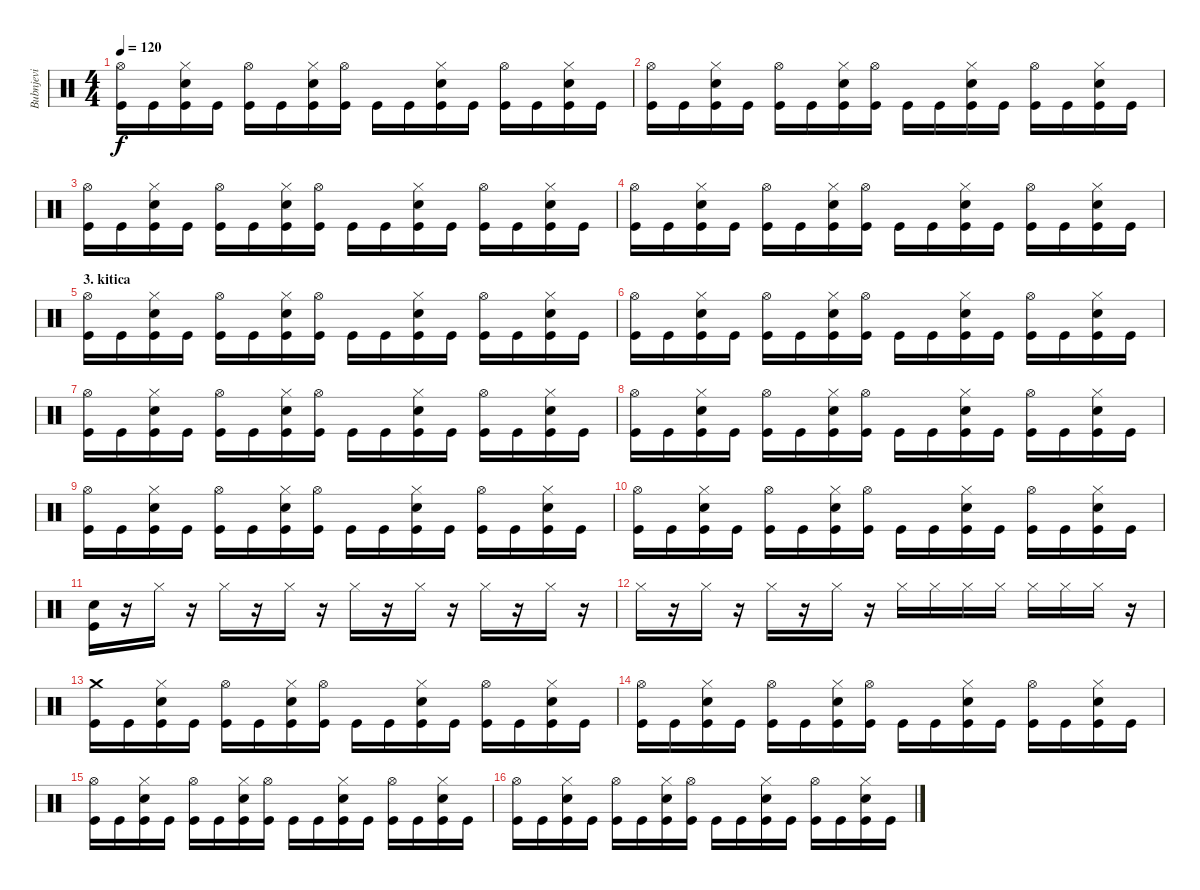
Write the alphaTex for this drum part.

\track ("Bubnjevi" "Bubnjevi") {instrument percussion}
\staff {score}
\articulation defaults
\ts (4 4)
\tempo 120
\clef neutral
\ks c
("Hi-Hat (open)" "Kick (hit)").16{dy f} "Kick (hit)".16 ("Electric Snare (hit)" "Hi-Hat (closed)" "Kick (hit)").16 "Kick (hit)".16 ("Hi-Hat (open)" "Kick (hit)").16 "Kick (hit)".16 ("Electric Snare (hit)" "Hi-Hat (closed)" "Kick (hit)").16 ("Hi-Hat (open)" "Kick (hit)").16 "Kick (hit)".16 "Kick (hit)".16 ("Electric Snare (hit)" "Hi-Hat (closed)" "Kick (hit)").16 "Kick (hit)".16 ("Hi-Hat (open)" "Kick (hit)").16 "Kick (hit)".16 ("Electric Snare (hit)" "Hi-Hat (closed)" "Kick (hit)").16 "Kick (hit)".16 |
("Hi-Hat (open)" "Kick (hit)").16 "Kick (hit)".16 ("Electric Snare (hit)" "Hi-Hat (closed)" "Kick (hit)").16 "Kick (hit)".16 ("Hi-Hat (open)" "Kick (hit)").16 "Kick (hit)".16 ("Electric Snare (hit)" "Hi-Hat (closed)" "Kick (hit)").16 ("Hi-Hat (open)" "Kick (hit)").16 "Kick (hit)".16 "Kick (hit)".16 ("Electric Snare (hit)" "Hi-Hat (closed)" "Kick (hit)").16 "Kick (hit)".16 ("Hi-Hat (open)" "Kick (hit)").16 "Kick (hit)".16 ("Electric Snare (hit)" "Hi-Hat (closed)" "Kick (hit)").16 "Kick (hit)".16 |
("Hi-Hat (open)" "Kick (hit)").16 "Kick (hit)".16 ("Electric Snare (hit)" "Hi-Hat (closed)" "Kick (hit)").16 "Kick (hit)".16 ("Hi-Hat (open)" "Kick (hit)").16 "Kick (hit)".16 ("Electric Snare (hit)" "Hi-Hat (closed)" "Kick (hit)").16 ("Hi-Hat (open)" "Kick (hit)").16 "Kick (hit)".16 "Kick (hit)".16 ("Electric Snare (hit)" "Hi-Hat (closed)" "Kick (hit)").16 "Kick (hit)".16 ("Hi-Hat (open)" "Kick (hit)").16 "Kick (hit)".16 ("Electric Snare (hit)" "Hi-Hat (closed)" "Kick (hit)").16 "Kick (hit)".16 |
("Hi-Hat (open)" "Kick (hit)").16 "Kick (hit)".16 ("Electric Snare (hit)" "Hi-Hat (closed)" "Kick (hit)").16 "Kick (hit)".16 ("Hi-Hat (open)" "Kick (hit)").16 "Kick (hit)".16 ("Electric Snare (hit)" "Hi-Hat (closed)" "Kick (hit)").16 ("Hi-Hat (open)" "Kick (hit)").16 "Kick (hit)".16 "Kick (hit)".16 ("Electric Snare (hit)" "Hi-Hat (closed)" "Kick (hit)").16 "Kick (hit)".16 ("Hi-Hat (open)" "Kick (hit)").16 "Kick (hit)".16 ("Electric Snare (hit)" "Hi-Hat (closed)" "Kick (hit)").16 "Kick (hit)".16 |
\section ("" "3. kitica")
("Hi-Hat (open)" "Kick (hit)").16 "Kick (hit)".16 ("Electric Snare (hit)" "Hi-Hat (closed)" "Kick (hit)").16 "Kick (hit)".16 ("Hi-Hat (open)" "Kick (hit)").16 "Kick (hit)".16 ("Electric Snare (hit)" "Hi-Hat (closed)" "Kick (hit)").16 ("Hi-Hat (open)" "Kick (hit)").16 "Kick (hit)".16 "Kick (hit)".16 ("Electric Snare (hit)" "Hi-Hat (closed)" "Kick (hit)").16 "Kick (hit)".16 ("Hi-Hat (open)" "Kick (hit)").16 "Kick (hit)".16 ("Electric Snare (hit)" "Hi-Hat (closed)" "Kick (hit)").16 "Kick (hit)".16 |
("Hi-Hat (open)" "Kick (hit)").16 "Kick (hit)".16 ("Electric Snare (hit)" "Hi-Hat (closed)" "Kick (hit)").16 "Kick (hit)".16 ("Hi-Hat (open)" "Kick (hit)").16 "Kick (hit)".16 ("Electric Snare (hit)" "Hi-Hat (closed)" "Kick (hit)").16 ("Hi-Hat (open)" "Kick (hit)").16 "Kick (hit)".16 "Kick (hit)".16 ("Electric Snare (hit)" "Hi-Hat (closed)" "Kick (hit)").16 "Kick (hit)".16 ("Hi-Hat (open)" "Kick (hit)").16 "Kick (hit)".16 ("Electric Snare (hit)" "Hi-Hat (closed)" "Kick (hit)").16 "Kick (hit)".16 |
("Hi-Hat (open)" "Kick (hit)").16 "Kick (hit)".16 ("Electric Snare (hit)" "Hi-Hat (closed)" "Kick (hit)").16 "Kick (hit)".16 ("Hi-Hat (open)" "Kick (hit)").16 "Kick (hit)".16 ("Electric Snare (hit)" "Hi-Hat (closed)" "Kick (hit)").16 ("Hi-Hat (open)" "Kick (hit)").16 "Kick (hit)".16 "Kick (hit)".16 ("Electric Snare (hit)" "Hi-Hat (closed)" "Kick (hit)").16 "Kick (hit)".16 ("Hi-Hat (open)" "Kick (hit)").16 "Kick (hit)".16 ("Electric Snare (hit)" "Hi-Hat (closed)" "Kick (hit)").16 "Kick (hit)".16 |
("Hi-Hat (open)" "Kick (hit)").16 "Kick (hit)".16 ("Electric Snare (hit)" "Hi-Hat (closed)" "Kick (hit)").16 "Kick (hit)".16 ("Hi-Hat (open)" "Kick (hit)").16 "Kick (hit)".16 ("Electric Snare (hit)" "Hi-Hat (closed)" "Kick (hit)").16 ("Hi-Hat (open)" "Kick (hit)").16 "Kick (hit)".16 "Kick (hit)".16 ("Electric Snare (hit)" "Hi-Hat (closed)" "Kick (hit)").16 "Kick (hit)".16 ("Hi-Hat (open)" "Kick (hit)").16 "Kick (hit)".16 ("Electric Snare (hit)" "Hi-Hat (closed)" "Kick (hit)").16 "Kick (hit)".16 |
("Hi-Hat (open)" "Kick (hit)").16 "Kick (hit)".16 ("Electric Snare (hit)" "Hi-Hat (closed)" "Kick (hit)").16 "Kick (hit)".16 ("Hi-Hat (open)" "Kick (hit)").16 "Kick (hit)".16 ("Electric Snare (hit)" "Hi-Hat (closed)" "Kick (hit)").16 ("Hi-Hat (open)" "Kick (hit)").16 "Kick (hit)".16 "Kick (hit)".16 ("Electric Snare (hit)" "Hi-Hat (closed)" "Kick (hit)").16 "Kick (hit)".16 ("Hi-Hat (open)" "Kick (hit)").16 "Kick (hit)".16 ("Electric Snare (hit)" "Hi-Hat (closed)" "Kick (hit)").16 "Kick (hit)".16 |
("Hi-Hat (open)" "Kick (hit)").16 "Kick (hit)".16 ("Electric Snare (hit)" "Hi-Hat (closed)" "Kick (hit)").16 "Kick (hit)".16 ("Hi-Hat (open)" "Kick (hit)").16 "Kick (hit)".16 ("Electric Snare (hit)" "Hi-Hat (closed)" "Kick (hit)").16 ("Hi-Hat (open)" "Kick (hit)").16 "Kick (hit)".16 "Kick (hit)".16 ("Electric Snare (hit)" "Hi-Hat (closed)" "Kick (hit)").16 "Kick (hit)".16 ("Hi-Hat (open)" "Kick (hit)").16 "Kick (hit)".16 ("Electric Snare (hit)" "Hi-Hat (closed)" "Kick (hit)").16 "Kick (hit)".16 |
("Electric Snare (hit)" "Kick (hit)").16 r.16 "Hi-Hat (closed)".16 r.16 "Hi-Hat (closed)".16 r.16 "Hi-Hat (closed)".16 r.16 "Hi-Hat (closed)".16 r.16 "Hi-Hat (closed)".16 r.16 "Hi-Hat (closed)".16 r.16 "Hi-Hat (closed)".16 r.16 |
"Hi-Hat (closed)".16 r.16 "Hi-Hat (closed)".16 r.16 "Hi-Hat (closed)".16 r.16 "Hi-Hat (closed)".16 r.16 "Hi-Hat (closed)".16 "Hi-Hat (closed)".16 "Hi-Hat (closed)".16 "Hi-Hat (closed)".16 "Hi-Hat (closed)".16 "Hi-Hat (closed)".16 "Hi-Hat (closed)".16 r.16 |
("Crash medium (hit)" "Kick (hit)").16 "Kick (hit)".16 ("Electric Snare (hit)" "Hi-Hat (closed)" "Kick (hit)").16 "Kick (hit)".16 ("Hi-Hat (open)" "Kick (hit)").16 "Kick (hit)".16 ("Electric Snare (hit)" "Hi-Hat (closed)" "Kick (hit)").16 ("Hi-Hat (open)" "Kick (hit)").16 "Kick (hit)".16 "Kick (hit)".16 ("Electric Snare (hit)" "Hi-Hat (closed)" "Kick (hit)").16 "Kick (hit)".16 ("Hi-Hat (open)" "Kick (hit)").16 "Kick (hit)".16 ("Electric Snare (hit)" "Hi-Hat (closed)" "Kick (hit)").16 "Kick (hit)".16 |
("Hi-Hat (open)" "Kick (hit)").16 "Kick (hit)".16 ("Electric Snare (hit)" "Hi-Hat (closed)" "Kick (hit)").16 "Kick (hit)".16 ("Hi-Hat (open)" "Kick (hit)").16 "Kick (hit)".16 ("Electric Snare (hit)" "Hi-Hat (closed)" "Kick (hit)").16 ("Hi-Hat (open)" "Kick (hit)").16 "Kick (hit)".16 "Kick (hit)".16 ("Electric Snare (hit)" "Hi-Hat (closed)" "Kick (hit)").16 "Kick (hit)".16 ("Hi-Hat (open)" "Kick (hit)").16 "Kick (hit)".16 ("Electric Snare (hit)" "Hi-Hat (closed)" "Kick (hit)").16 "Kick (hit)".16 |
("Hi-Hat (open)" "Kick (hit)").16 "Kick (hit)".16 ("Electric Snare (hit)" "Hi-Hat (closed)" "Kick (hit)").16 "Kick (hit)".16 ("Hi-Hat (open)" "Kick (hit)").16 "Kick (hit)".16 ("Electric Snare (hit)" "Hi-Hat (closed)" "Kick (hit)").16 ("Hi-Hat (open)" "Kick (hit)").16 "Kick (hit)".16 "Kick (hit)".16 ("Electric Snare (hit)" "Hi-Hat (closed)" "Kick (hit)").16 "Kick (hit)".16 ("Hi-Hat (open)" "Kick (hit)").16 "Kick (hit)".16 ("Electric Snare (hit)" "Hi-Hat (closed)" "Kick (hit)").16 "Kick (hit)".16 |
("Hi-Hat (open)" "Kick (hit)").16 "Kick (hit)".16 ("Electric Snare (hit)" "Hi-Hat (closed)" "Kick (hit)").16 "Kick (hit)".16 ("Hi-Hat (open)" "Kick (hit)").16 "Kick (hit)".16 ("Electric Snare (hit)" "Hi-Hat (closed)" "Kick (hit)").16 ("Hi-Hat (open)" "Kick (hit)").16 "Kick (hit)".16 "Kick (hit)".16 ("Electric Snare (hit)" "Hi-Hat (closed)" "Kick (hit)").16 "Kick (hit)".16 ("Hi-Hat (open)" "Kick (hit)").16 "Kick (hit)".16 ("Electric Snare (hit)" "Hi-Hat (closed)" "Kick (hit)").16 "Kick (hit)".16
